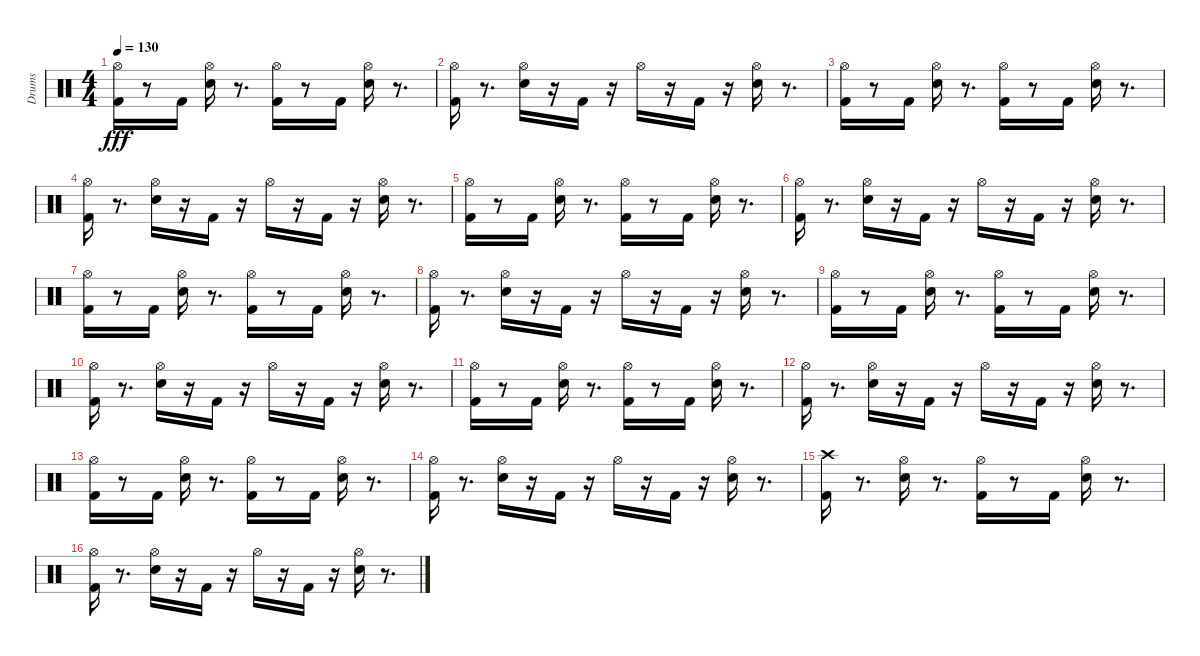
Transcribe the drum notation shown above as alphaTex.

\track ("Drums" "Drums") {instrument percussion}
\staff {score}
\articulation defaults
\ts (4 4)
\tempo 130
\clef neutral
\ks c
("Hi-Hat (open)" "Kick (hit) 2").16{dy fff} r.8 "Kick (hit) 2".16 ("Hi-Hat (open)" "Snare (hit) 2").16 r.8{d} ("Hi-Hat (open)" "Kick (hit) 2").16 r.8 "Kick (hit) 2".16 ("Hi-Hat (open)" "Snare (hit) 2").16 r.8{d} |
("Hi-Hat (open)" "Kick (hit) 2").16 r.8{d} ("Hi-Hat (open)" "Snare (hit) 2").16 r.16 "Kick (hit) 2".16 r.16 "Hi-Hat (open)".16 r.16 "Kick (hit) 2".16 r.16 ("Hi-Hat (open)" "Snare (hit) 2").16 r.8{d} |
("Hi-Hat (open)" "Kick (hit) 2").16 r.8 "Kick (hit) 2".16 ("Hi-Hat (open)" "Snare (hit) 2").16 r.8{d} ("Hi-Hat (open)" "Kick (hit) 2").16 r.8 "Kick (hit) 2".16 ("Hi-Hat (open)" "Snare (hit) 2").16 r.8{d} |
("Hi-Hat (open)" "Kick (hit) 2").16 r.8{d} ("Hi-Hat (open)" "Snare (hit) 2").16 r.16 "Kick (hit) 2".16 r.16 "Hi-Hat (open)".16 r.16 "Kick (hit) 2".16 r.16 ("Hi-Hat (open)" "Snare (hit) 2").16 r.8{d} |
("Hi-Hat (open)" "Kick (hit) 2").16 r.8 "Kick (hit) 2".16 ("Hi-Hat (open)" "Snare (hit) 2").16 r.8{d} ("Hi-Hat (open)" "Kick (hit) 2").16 r.8 "Kick (hit) 2".16 ("Hi-Hat (open)" "Snare (hit) 2").16 r.8{d} |
("Hi-Hat (open)" "Kick (hit) 2").16 r.8{d} ("Hi-Hat (open)" "Snare (hit) 2").16 r.16 "Kick (hit) 2".16 r.16 "Hi-Hat (open)".16 r.16 "Kick (hit) 2".16 r.16 ("Hi-Hat (open)" "Snare (hit) 2").16 r.8{d} |
("Hi-Hat (open)" "Kick (hit) 2").16 r.8 "Kick (hit) 2".16 ("Hi-Hat (open)" "Snare (hit) 2").16 r.8{d} ("Hi-Hat (open)" "Kick (hit) 2").16 r.8 "Kick (hit) 2".16 ("Hi-Hat (open)" "Snare (hit) 2").16 r.8{d} |
("Hi-Hat (open)" "Kick (hit) 2").16 r.8{d} ("Hi-Hat (open)" "Snare (hit) 2").16 r.16 "Kick (hit) 2".16 r.16 "Hi-Hat (open)".16 r.16 "Kick (hit) 2".16 r.16 ("Hi-Hat (open)" "Snare (hit) 2").16 r.8{d} |
("Hi-Hat (open)" "Kick (hit) 2").16 r.8 "Kick (hit) 2".16 ("Hi-Hat (open)" "Snare (hit) 2").16 r.8{d} ("Hi-Hat (open)" "Kick (hit) 2").16 r.8 "Kick (hit) 2".16 ("Hi-Hat (open)" "Snare (hit) 2").16 r.8{d} |
("Hi-Hat (open)" "Kick (hit) 2").16 r.8{d} ("Hi-Hat (open)" "Snare (hit) 2").16 r.16 "Kick (hit) 2".16 r.16 "Hi-Hat (open)".16 r.16 "Kick (hit) 2".16 r.16 ("Hi-Hat (open)" "Snare (hit) 2").16 r.8{d} |
("Hi-Hat (open)" "Kick (hit) 2").16 r.8 "Kick (hit) 2".16 ("Hi-Hat (open)" "Snare (hit) 2").16 r.8{d} ("Hi-Hat (open)" "Kick (hit) 2").16 r.8 "Kick (hit) 2".16 ("Hi-Hat (open)" "Snare (hit) 2").16 r.8{d} |
("Hi-Hat (open)" "Kick (hit) 2").16 r.8{d} ("Hi-Hat (open)" "Snare (hit) 2").16 r.16 "Kick (hit) 2".16 r.16 "Hi-Hat (open)".16 r.16 "Kick (hit) 2".16 r.16 ("Hi-Hat (open)" "Snare (hit) 2").16 r.8{d} |
("Hi-Hat (open)" "Kick (hit) 2").16 r.8 "Kick (hit) 2".16 ("Hi-Hat (open)" "Snare (hit) 2").16 r.8{d} ("Hi-Hat (open)" "Kick (hit) 2").16 r.8 "Kick (hit) 2".16 ("Hi-Hat (open)" "Snare (hit) 2").16 r.8{d} |
("Hi-Hat (open)" "Kick (hit) 2").16 r.8{d} ("Hi-Hat (open)" "Snare (hit) 2").16 r.16 "Kick (hit) 2".16 r.16 "Hi-Hat (open)".16 r.16 "Kick (hit) 2".16 r.16 ("Hi-Hat (open)" "Snare (hit) 2").16 r.8{d} |
("Crash high (hit)" "Kick (hit) 2").16 r.8{d} ("Hi-Hat (open)" "Snare (hit) 2").16 r.8{d} ("Hi-Hat (open)" "Kick (hit) 2").16 r.8 "Kick (hit) 2".16 ("Hi-Hat (open)" "Snare (hit) 2").16 r.8{d} |
("Hi-Hat (open)" "Kick (hit) 2").16 r.8{d} ("Hi-Hat (open)" "Snare (hit) 2").16 r.16 "Kick (hit) 2".16 r.16 "Hi-Hat (open)".16 r.16 "Kick (hit) 2".16 r.16 ("Hi-Hat (open)" "Snare (hit) 2").16 r.8{d}
